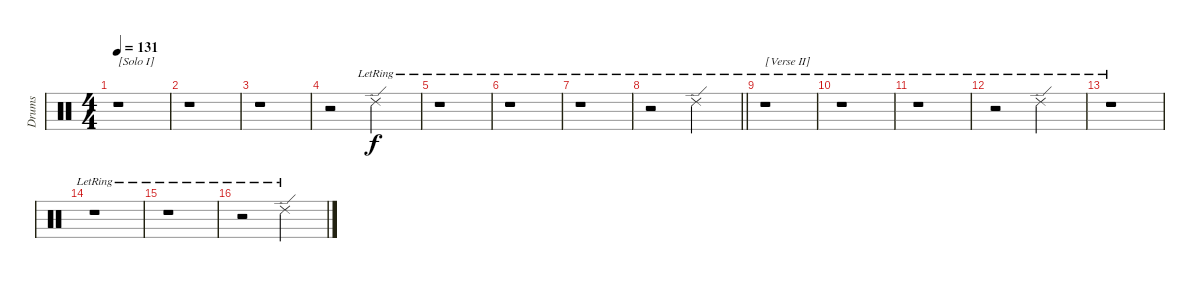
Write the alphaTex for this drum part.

\track ("Drums" "Drums") {instrument percussion}
\staff {score}
\articulation defaults
\ts (4 4)
\tempo 131
\clef neutral
\ks c
r.1{txt "[Solo I]" dy f} |
r.1 |
r.1 |
r.2 "Ride (edge) 2"{lr}.2 |
r.1 |
r.1 |
r.1 |
\barLineRight lightlight
r.2 "Ride (edge) 2"{lr}.2 |
r.1{txt "[Verse II]"} |
r.1 |
r.1 |
r.2 "Ride (edge) 2"{lr}.2 |
r.1 |
r.1 |
r.1 |
r.2 "Ride (edge) 2"{lr}.2
